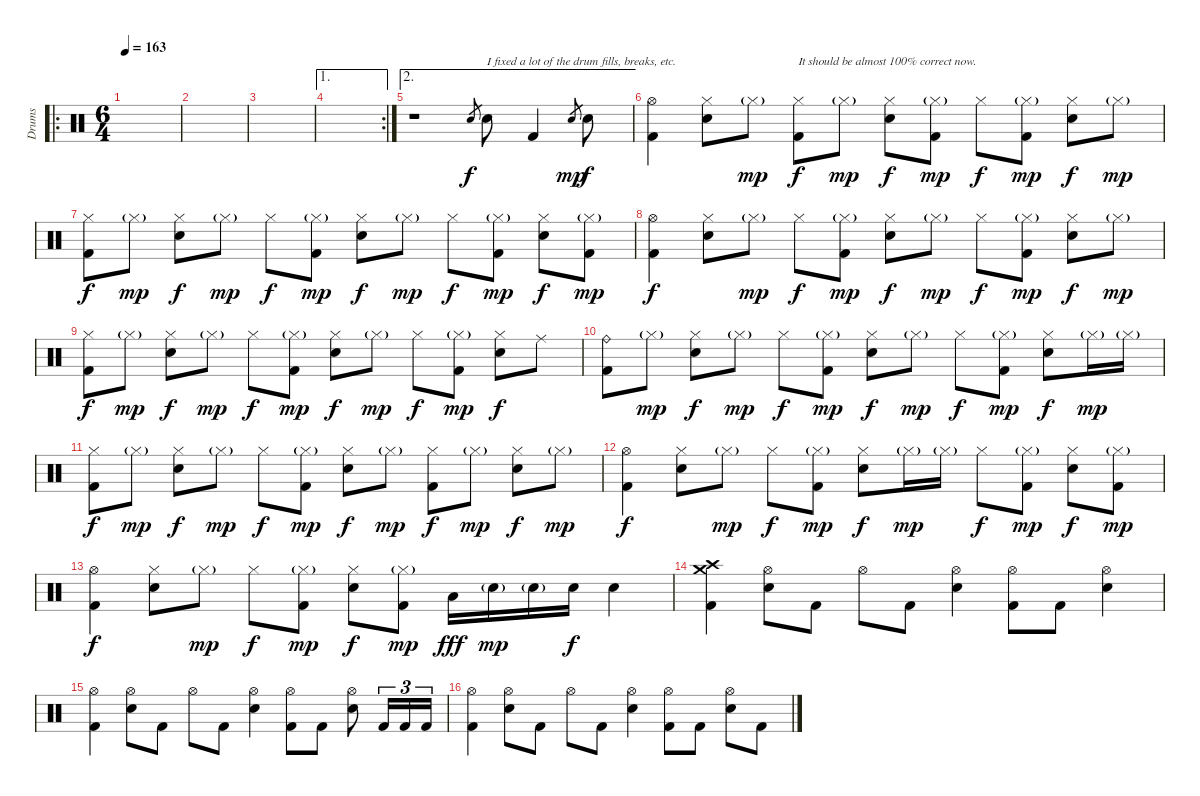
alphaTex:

\track ("Drums" "Drums") {instrument percussion}
\staff {score}
\articulation defaults
\ro
\ts (6 4)
\tempo 163
\clef neutral
\ks c
|
|
|
\ae 1
\rc 2
|
\ae 2
r.1 "Electric Snare (hit)".8{gr} "Electric Snare (hit)".8{txt "I fixed a lot of the drum fills, breaks, etc." dy f} "Kick (hit) 2".4 "Electric Snare (hit)".8{gr dy mp} "Electric Snare (hit)".8{dy f} |
("Hi-Hat (open)" "Kick (hit) 2").4 ("Hi-Hat (closed)" "Electric Snare (hit)").8 "Hi-Hat (closed)"{g}.8{dy mp} ("Hi-Hat (closed)" "Kick (hit) 2").8{txt "It should be almost 100% correct now." dy f} "Hi-Hat (closed)"{g}.8{dy mp} ("Hi-Hat (closed)" "Electric Snare (hit)").8{dy f} ("Hi-Hat (closed)"{g} "Kick (hit) 2").8{dy mp} "Hi-Hat (closed)".8{dy f} ("Hi-Hat (closed)"{g} "Kick (hit) 2").8{dy mp} ("Hi-Hat (closed)" "Electric Snare (hit)").8{dy f} "Hi-Hat (closed)"{g}.8{dy mp} |
("Hi-Hat (closed)" "Kick (hit) 2").8{dy f} "Hi-Hat (closed)"{g}.8{dy mp} ("Hi-Hat (closed)" "Electric Snare (hit)").8{dy f} "Hi-Hat (closed)"{g}.8{dy mp} "Hi-Hat (closed)".8{dy f} ("Hi-Hat (closed)"{g} "Kick (hit) 2").8{dy mp} ("Hi-Hat (closed)" "Electric Snare (hit)").8{dy f} "Hi-Hat (closed)"{g}.8{dy mp} "Hi-Hat (closed)".8{dy f} ("Hi-Hat (closed)"{g} "Kick (hit) 2").8{dy mp} ("Hi-Hat (closed)" "Electric Snare (hit)").8{dy f} ("Hi-Hat (closed)"{g} "Kick (hit) 2").8{dy mp} |
("Hi-Hat (open)" "Kick (hit) 2").4{dy f} ("Hi-Hat (closed)" "Electric Snare (hit)").8 "Hi-Hat (closed)"{g}.8{dy mp} "Hi-Hat (closed)".8{dy f} ("Hi-Hat (closed)"{g} "Kick (hit) 2").8{dy mp} ("Hi-Hat (closed)" "Electric Snare (hit)").8{dy f} "Hi-Hat (closed)"{g}.8{dy mp} "Hi-Hat (closed)".8{dy f} ("Hi-Hat (closed)"{g} "Kick (hit) 2").8{dy mp} ("Hi-Hat (closed)" "Electric Snare (hit)").8{dy f} "Hi-Hat (closed)"{g}.8{dy mp} |
("Hi-Hat (closed)" "Kick (hit) 2").8{dy f} "Hi-Hat (closed)"{g}.8{dy mp} ("Hi-Hat (closed)" "Electric Snare (hit)").8{dy f} "Hi-Hat (closed)"{g}.8{dy mp} "Hi-Hat (closed)".8{dy f} ("Hi-Hat (closed)"{g} "Kick (hit) 2").8{dy mp} ("Hi-Hat (closed)" "Electric Snare (hit)").8{dy f} "Hi-Hat (closed)"{g}.8{dy mp} "Hi-Hat (closed)".8{dy f} ("Hi-Hat (closed)"{g} "Kick (hit) 2").8{dy mp} ("Hi-Hat (closed)" "Electric Snare (hit)").8{dy f} "Ride (middle)".8 |
("Ride (bell)" "Kick (hit) 2").8 "Hi-Hat (closed)"{g}.8{dy mp} ("Hi-Hat (closed)" "Electric Snare (hit)").8{dy f} "Hi-Hat (closed)"{g}.8{dy mp} "Hi-Hat (closed)".8{dy f} ("Hi-Hat (closed)"{g} "Kick (hit) 2").8{dy mp} ("Hi-Hat (closed)" "Electric Snare (hit)").8{dy f} "Hi-Hat (closed)"{g}.8{dy mp} "Hi-Hat (closed)".8{dy f} ("Hi-Hat (closed)"{g} "Kick (hit) 2").8{dy mp} ("Hi-Hat (closed)" "Electric Snare (hit)").8{dy f} "Hi-Hat (closed)"{g}.16{dy mp} "Hi-Hat (closed)"{g}.16 |
("Hi-Hat (closed)" "Kick (hit) 2").8{dy f} "Hi-Hat (closed)"{g}.8{dy mp} ("Hi-Hat (closed)" "Electric Snare (hit)").8{dy f} "Hi-Hat (closed)"{g}.8{dy mp} "Hi-Hat (closed)".8{dy f} ("Hi-Hat (closed)"{g} "Kick (hit) 2").8{dy mp} ("Hi-Hat (closed)" "Electric Snare (hit)").8{dy f} "Hi-Hat (closed)"{g}.8{dy mp} ("Hi-Hat (closed)" "Kick (hit) 2").8{dy f} "Hi-Hat (closed)"{g}.8{dy mp} ("Hi-Hat (closed)" "Electric Snare (hit)").8{dy f} "Hi-Hat (closed)"{g}.8{dy mp} |
("Hi-Hat (open)" "Kick (hit) 2").4{dy f} ("Hi-Hat (closed)" "Electric Snare (hit)").8 "Hi-Hat (closed)"{g}.8{dy mp} "Hi-Hat (closed)".8{dy f} ("Hi-Hat (closed)"{g} "Kick (hit) 2").8{dy mp} ("Hi-Hat (closed)" "Electric Snare (hit)").8{dy f} "Hi-Hat (closed)"{g}.16{dy mp} "Hi-Hat (closed)"{g}.16 "Hi-Hat (closed)".8{dy f} ("Hi-Hat (closed)"{g} "Kick (hit) 2").8{dy mp} ("Hi-Hat (closed)" "Electric Snare (hit)").8{dy f} ("Hi-Hat (closed)"{g} "Kick (hit) 2").8{dy mp} |
("Hi-Hat (open)" "Kick (hit) 2").4{dy f} ("Hi-Hat (closed)" "Electric Snare (hit)").8 "Hi-Hat (closed)"{g}.8{dy mp} "Hi-Hat (closed)".8{dy f} ("Hi-Hat (closed)"{g} "Kick (hit) 2").8{dy mp} ("Hi-Hat (closed)" "Electric Snare (hit)").8{dy f} ("Hi-Hat (closed)"{g} "Kick (hit) 2").8{dy mp} "Low Tom (hit)".16{dy fff} "Electric Snare (hit)"{g}.16{dy mp} "Electric Snare (hit)"{g}.16 "Electric Snare (hit)".16{dy f} "Electric Snare (hit)".4 |
("Crash medium (hit)" "Crash high (hit)" "Kick (hit) 2").4 ("Hi-Hat (open)" "Electric Snare (hit)").8 "Kick (hit) 2".8 "Hi-Hat (open)".8 "Kick (hit) 2".8 ("Hi-Hat (open)" "Electric Snare (hit)").4 ("Hi-Hat (open)" "Kick (hit) 2").8 "Kick (hit) 2".8 ("Hi-Hat (open)" "Electric Snare (hit)").4 |
("Hi-Hat (open)" "Kick (hit) 2").4 ("Hi-Hat (open)" "Electric Snare (hit)").8 "Kick (hit) 2".8 "Hi-Hat (open)".8 "Kick (hit) 2".8 ("Hi-Hat (open)" "Electric Snare (hit)").4 ("Hi-Hat (open)" "Kick (hit) 2").8 "Kick (hit) 2".8 ("Hi-Hat (open)" "Electric Snare (hit)").8 "Kick (hit) 2".16{tu (3 2)} "Kick (hit) 2".16{tu (3 2)} "Kick (hit) 2".16{tu (3 2)} |
("Hi-Hat (open)" "Kick (hit) 2").4 ("Hi-Hat (open)" "Electric Snare (hit)").8 "Kick (hit) 2".8 "Hi-Hat (open)".8 "Kick (hit) 2".8 ("Hi-Hat (open)" "Electric Snare (hit)").4 ("Hi-Hat (open)" "Kick (hit) 2").8 "Kick (hit) 2".8 ("Hi-Hat (open)" "Electric Snare (hit)").8 "Kick (hit) 2".8
